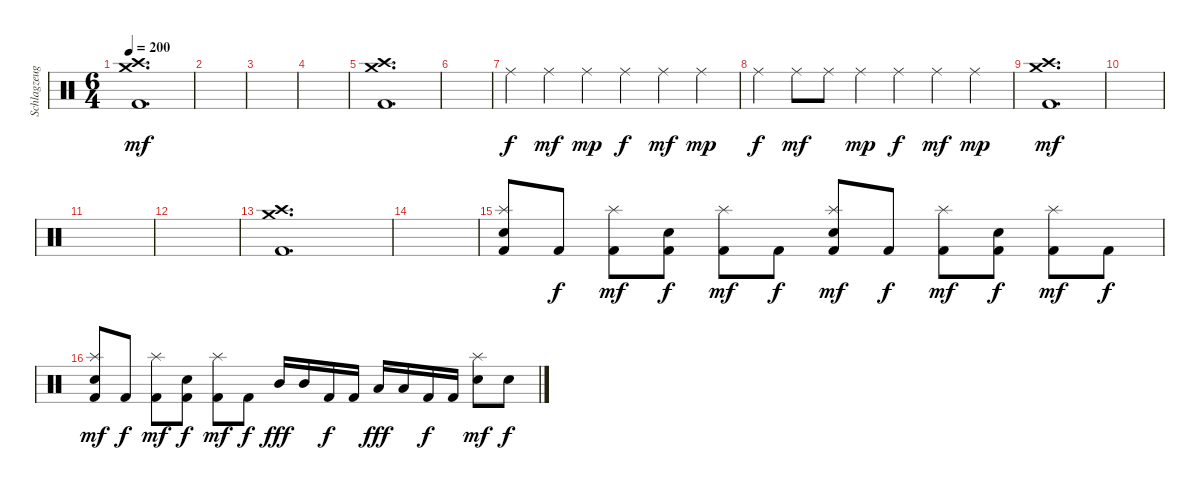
\track ("Schlagzeug" "Schlagzeug") {instrument percussion}
\staff {score}
\articulation defaults
\ts (6 4)
\tempo 200
\clef neutral
\ks c
("Crash medium (hit)" "Crash high (hit)" "Kick (hit) 2").1{d dy mf} |
|
|
|
("Crash medium (hit)" "Crash high (hit)" "Kick (hit) 2").1{d} |
|
"Ride (middle)".4{dy f} "Ride (middle)".4{dy mf} "Ride (middle)".4{dy mp} "Ride (middle)".4{dy f} "Ride (middle)".4{dy mf} "Ride (middle)".4{dy mp} |
"Ride (middle)".4{dy f} "Ride (middle)".8{dy mf} "Ride (middle)".8 "Ride (middle)".4{dy mp} "Ride (middle)".4{dy f} "Ride (middle)".4{dy mf} "Ride (middle)".4{dy mp} |
("Crash medium (hit)" "Crash high (hit)" "Kick (hit) 2").1{d dy mf} |
|
|
|
("Crash medium (hit)" "Crash high (hit)" "Kick (hit) 2").1{d} |
|
("Splash (hit)" "Electric Snare (hit)" "Kick (hit) 2").8 "Kick (hit) 2".8{dy f} ("Splash (hit)" "Kick (hit) 2").8{dy mf} ("Electric Snare (hit)" "Kick (hit) 2").8{dy f} ("Splash (hit)" "Kick (hit) 2").8{dy mf} "Kick (hit) 2".8{dy f} ("Splash (hit)" "Electric Snare (hit)" "Kick (hit) 2").8{dy mf} "Kick (hit) 2".8{dy f} ("Splash (hit)" "Kick (hit) 2").8{dy mf} ("Electric Snare (hit)" "Kick (hit) 2").8{dy f} ("Splash (hit)" "Kick (hit) 2").8{dy mf} "Kick (hit) 2".8{dy f} |
("Splash (hit)" "Electric Snare (hit)" "Kick (hit) 2").8{dy mf} "Kick (hit) 2".8{dy f} ("Splash (hit)" "Kick (hit) 2").8{dy mf} ("Electric Snare (hit)" "Kick (hit) 2").8{dy f} ("Splash (hit)" "Kick (hit) 2").8{dy mf} "Kick (hit) 2".8{dy f} "Mid Tom (hit)".16{dy fff} "Mid Tom (hit)".16 "Kick (hit) 2".16{dy f} "Kick (hit) 2".16 "Low Tom (hit)".16{dy fff} "Low Tom (hit)".16 "Kick (hit) 2".16{dy f} "Kick (hit) 2".16 ("Splash (hit)" "Electric Snare (hit)").8{dy mf} "Electric Snare (hit)".8{dy f}
